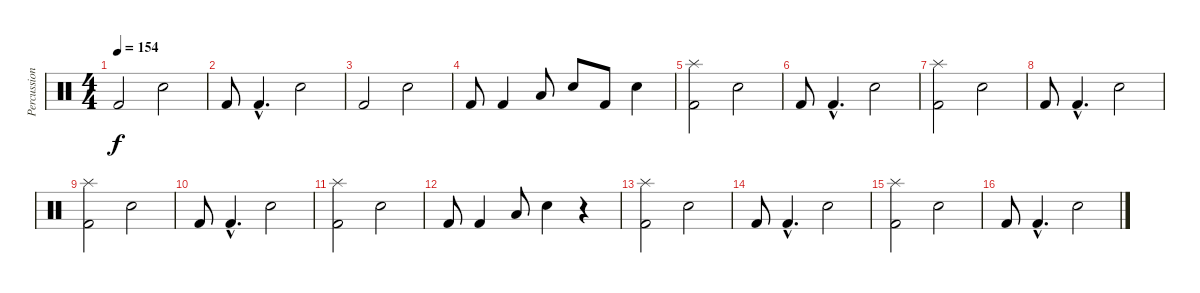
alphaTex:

\track ("Percussion" "Percussion") {instrument percussion}
\staff {score}
\articulation defaults
\ts (4 4)
\tempo 154
\clef neutral
\ks c "Kick (hit) 2".2{dy f} "Snare (hit) 2".2
|
"Kick (hit) 2".8 "Kick (hit) 2"{hac}.4{d} "Snare (hit) 2".2 |
"Kick (hit) 2".2 "Snare (hit) 2".2 |
"Kick (hit) 2".8 "Kick (hit) 2".4 "Low Floor Tom (hit)".8 "Snare (hit) 2".8 "Kick (hit) 2".8 "Snare (hit) 2".4 |
("Kick (hit) 2" "Splash (hit)").2 "Snare (hit) 2".2 |
"Kick (hit) 2".8 "Kick (hit) 2"{hac}.4{d} "Snare (hit) 2".2 |
("Kick (hit) 2" "Splash (hit)").2 "Snare (hit) 2".2 |
"Kick (hit) 2".8 "Kick (hit) 2"{hac}.4{d} "Snare (hit) 2".2 |
("Kick (hit) 2" "Splash (hit)").2 "Snare (hit) 2".2 |
"Kick (hit) 2".8 "Kick (hit) 2"{hac}.4{d} "Snare (hit) 2".2 |
("Kick (hit) 2" "Splash (hit)").2 "Snare (hit) 2".2 |
"Kick (hit) 2".8 "Kick (hit) 2".4 "Low Floor Tom (hit)".8 "Snare (hit) 2".4 r.4 |
("Kick (hit) 2" "Splash (hit)").2 "Snare (hit) 2".2 |
"Kick (hit) 2".8 "Kick (hit) 2"{hac}.4{d} "Snare (hit) 2".2 |
("Kick (hit) 2" "Splash (hit)").2 "Snare (hit) 2".2 |
"Kick (hit) 2".8 "Kick (hit) 2"{hac}.4{d} "Snare (hit) 2".2
